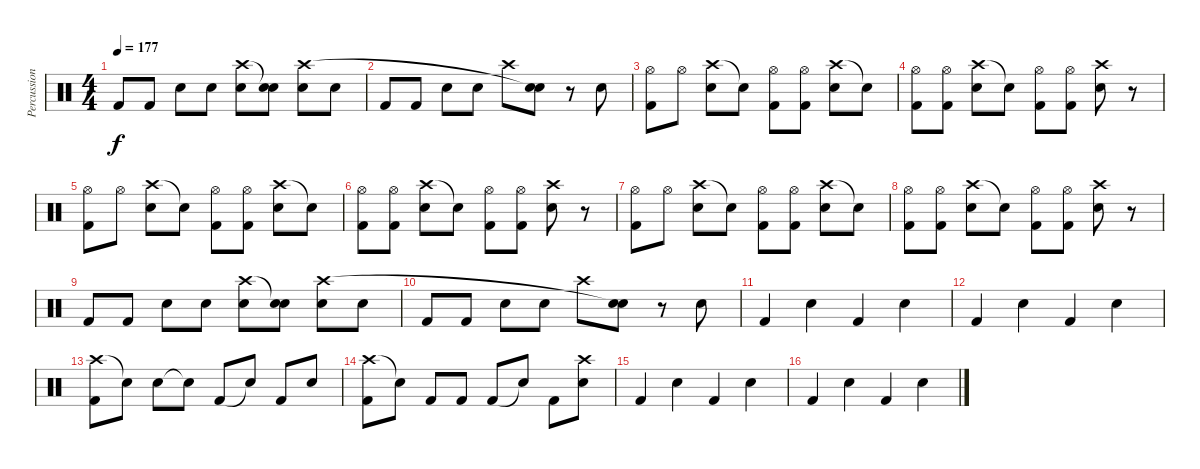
\track ("Percussion" "Percussion") {instrument percussion}
\staff {score}
\articulation defaults
\ts (4 4)
\tempo 177
\clef neutral
\ks c "Kick (hit) 2".8{dy f} "Kick (hit) 2".8 "Electric Snare (hit)".8 "Electric Snare (hit)".8
("Electric Snare (hit)" "Crash high (hit)").8 ("Electric Snare (hit)" "Snare (hit)"{t}).8 ("Electric Snare (hit)" "Crash high (hit)").8 "Electric Snare (hit)".8 |
"Kick (hit) 2".8 "Kick (hit) 2".8 "Electric Snare (hit)".8 "Electric Snare (hit)".8 "Crash high (hit)".8 ("Electric Snare (hit)" "Snare (hit)"{t}).8 r.8 "Electric Snare (hit)".8 |
("Hi-Hat (open)" "Kick (hit) 2").8 "Hi-Hat (open)".8 ("Crash high (hit)" "Electric Snare (hit)").8 "Snare (hit)"{t}.8 ("Hi-Hat (open)" "Kick (hit) 2").8 ("Hi-Hat (open)" "Kick (hit) 2").8 ("Crash high (hit)" "Electric Snare (hit)").8 "Snare (hit)"{t}.8 |
("Hi-Hat (open)" "Kick (hit) 2").8 ("Hi-Hat (open)" "Kick (hit) 2").8 ("Crash high (hit)" "Electric Snare (hit)").8 "Snare (hit)"{t}.8 ("Hi-Hat (open)" "Kick (hit) 2").8 ("Hi-Hat (open)" "Kick (hit) 2").8 ("Crash high (hit)" "Electric Snare (hit)").8 r.8 |
("Hi-Hat (open)" "Kick (hit) 2").8 "Hi-Hat (open)".8 ("Crash high (hit)" "Electric Snare (hit)").8 "Snare (hit)"{t}.8 ("Hi-Hat (open)" "Kick (hit) 2").8 ("Hi-Hat (open)" "Kick (hit) 2").8 ("Crash high (hit)" "Electric Snare (hit)").8 "Snare (hit)"{t}.8 |
("Hi-Hat (open)" "Kick (hit) 2").8 ("Hi-Hat (open)" "Kick (hit) 2").8 ("Crash high (hit)" "Electric Snare (hit)").8 "Snare (hit)"{t}.8 ("Hi-Hat (open)" "Kick (hit) 2").8 ("Hi-Hat (open)" "Kick (hit) 2").8 ("Crash high (hit)" "Electric Snare (hit)").8 r.8 |
("Hi-Hat (open)" "Kick (hit) 2").8 "Hi-Hat (open)".8 ("Crash high (hit)" "Electric Snare (hit)").8 "Snare (hit)"{t}.8 ("Hi-Hat (open)" "Kick (hit) 2").8 ("Hi-Hat (open)" "Kick (hit) 2").8 ("Crash high (hit)" "Electric Snare (hit)").8 "Snare (hit)"{t}.8 |
("Hi-Hat (open)" "Kick (hit) 2").8 ("Hi-Hat (open)" "Kick (hit) 2").8 ("Crash high (hit)" "Electric Snare (hit)").8 "Snare (hit)"{t}.8 ("Hi-Hat (open)" "Kick (hit) 2").8 ("Hi-Hat (open)" "Kick (hit) 2").8 ("Crash high (hit)" "Electric Snare (hit)").8 r.8 |
"Kick (hit) 2".8 "Kick (hit) 2".8 "Electric Snare (hit)".8 "Electric Snare (hit)".8 ("Electric Snare (hit)" "Crash high (hit)").8 ("Electric Snare (hit)" "Snare (hit)"{t}).8 ("Electric Snare (hit)" "Crash high (hit)").8 "Electric Snare (hit)".8 |
"Kick (hit) 2".8 "Kick (hit) 2".8 "Electric Snare (hit)".8 "Electric Snare (hit)".8 "Crash high (hit)".8 ("Electric Snare (hit)" "Snare (hit)"{t}).8 r.8 "Electric Snare (hit)".8 |
"Kick (hit) 2".4 "Electric Snare (hit)".4 "Kick (hit) 2".4 "Electric Snare (hit)".4 |
"Kick (hit) 2".4 "Electric Snare (hit)".4 "Kick (hit) 2".4 "Electric Snare (hit)".4 |
("Crash high (hit)" "Kick (hit) 2").8 "Snare (hit)"{t}.8 "Electric Snare (hit)".8 "Snare (hit)"{t}.8 "Kick (hit) 2".8 "Snare (hit)"{t}.8 "Kick (hit) 2".8 "Electric Snare (hit)".8 |
("Crash high (hit)" "Kick (hit) 2").8 "Snare (hit)"{t}.8 "Kick (hit) 2".8 "Kick (hit) 2".8 "Kick (hit) 2".8 "Snare (hit)"{t}.8 "Kick (hit) 2".8 ("Crash high (hit)" "Electric Snare (hit)").8 |
"Kick (hit) 2".4 "Electric Snare (hit)".4 "Kick (hit) 2".4 "Electric Snare (hit)".4 |
"Kick (hit) 2".4 "Electric Snare (hit)".4 "Kick (hit) 2".4 "Electric Snare (hit)".4
